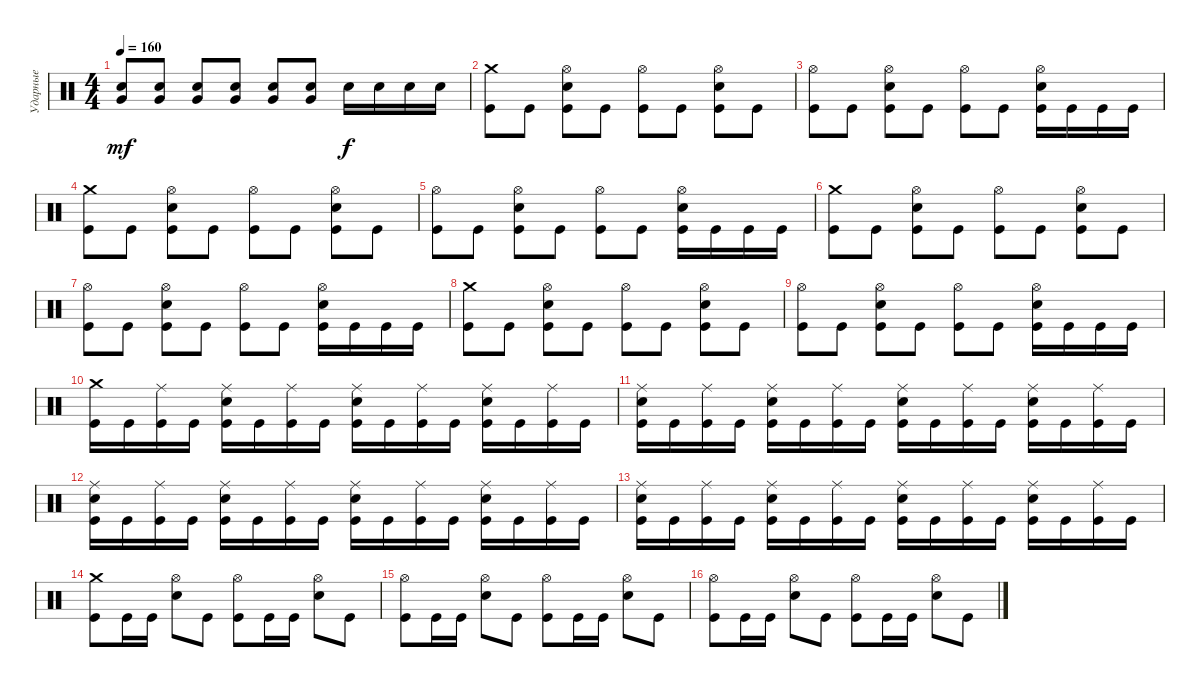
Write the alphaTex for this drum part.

\track ("Ударные" "Ударные") {instrument percussion}
\staff {score}
\articulation defaults
\ts (4 4)
\tempo 160
\clef neutral
\ks c
("Snare (hit) 2" "Very Low Tom (hit)").8{dy mf} ("Snare (hit) 2" "Very Low Tom (hit)").8 ("Snare (hit) 2" "Very Low Tom (hit)").8 ("Snare (hit) 2" "Very Low Tom (hit)").8 ("Snare (hit) 2" "Very Low Tom (hit)").8 ("Snare (hit) 2" "Very Low Tom (hit)").8 "Snare (hit) 2".16{dy f} "Snare (hit) 2".16 "Snare (hit) 2".16 "Snare (hit) 2".16 |
("Kick (hit)" "Crash medium (hit)").8 "Kick (hit)".8 ("Kick (hit)" "Snare (hit) 2" "Hi-Hat (open)").8 "Kick (hit)".8 ("Kick (hit)" "Hi-Hat (open)").8 "Kick (hit)".8 ("Kick (hit)" "Snare (hit) 2" "Hi-Hat (open)").8 "Kick (hit)".8 |
("Kick (hit)" "Hi-Hat (open)").8 "Kick (hit)".8 ("Kick (hit)" "Snare (hit) 2" "Hi-Hat (open)").8 "Kick (hit)".8 ("Kick (hit)" "Hi-Hat (open)").8 "Kick (hit)".8 ("Kick (hit)" "Snare (hit) 2" "Hi-Hat (open)").16 "Kick (hit)".16 "Kick (hit)".16 "Kick (hit)".16 |
("Kick (hit)" "Crash medium (hit)").8 "Kick (hit)".8 ("Kick (hit)" "Snare (hit) 2" "Hi-Hat (open)").8 "Kick (hit)".8 ("Kick (hit)" "Hi-Hat (open)").8 "Kick (hit)".8 ("Kick (hit)" "Snare (hit) 2" "Hi-Hat (open)").8 "Kick (hit)".8 |
("Kick (hit)" "Hi-Hat (open)").8 "Kick (hit)".8 ("Kick (hit)" "Snare (hit) 2" "Hi-Hat (open)").8 "Kick (hit)".8 ("Kick (hit)" "Hi-Hat (open)").8 "Kick (hit)".8 ("Kick (hit)" "Snare (hit) 2" "Hi-Hat (open)").16 "Kick (hit)".16 "Kick (hit)".16 "Kick (hit)".16 |
("Kick (hit)" "Crash medium (hit)").8 "Kick (hit)".8 ("Kick (hit)" "Snare (hit) 2" "Hi-Hat (open)").8 "Kick (hit)".8 ("Kick (hit)" "Hi-Hat (open)").8 "Kick (hit)".8 ("Kick (hit)" "Snare (hit) 2" "Hi-Hat (open)").8 "Kick (hit)".8 |
("Kick (hit)" "Hi-Hat (open)").8 "Kick (hit)".8 ("Kick (hit)" "Snare (hit) 2" "Hi-Hat (open)").8 "Kick (hit)".8 ("Kick (hit)" "Hi-Hat (open)").8 "Kick (hit)".8 ("Kick (hit)" "Snare (hit) 2" "Hi-Hat (open)").16 "Kick (hit)".16 "Kick (hit)".16 "Kick (hit)".16 |
("Kick (hit)" "Crash medium (hit)").8 "Kick (hit)".8 ("Kick (hit)" "Snare (hit) 2" "Hi-Hat (open)").8 "Kick (hit)".8 ("Kick (hit)" "Hi-Hat (open)").8 "Kick (hit)".8 ("Kick (hit)" "Snare (hit) 2" "Hi-Hat (open)").8 "Kick (hit)".8 |
("Kick (hit)" "Hi-Hat (open)").8 "Kick (hit)".8 ("Kick (hit)" "Snare (hit) 2" "Hi-Hat (open)").8 "Kick (hit)".8 ("Kick (hit)" "Hi-Hat (open)").8 "Kick (hit)".8 ("Kick (hit)" "Snare (hit) 2" "Hi-Hat (open)").16 "Kick (hit)".16 "Kick (hit)".16 "Kick (hit)".16 |
("Kick (hit)" "Crash medium (hit)").16 "Kick (hit)".16 ("Kick (hit)" "Ride (middle)").16 "Kick (hit)".16 ("Kick (hit)" "Snare (hit) 2" "Ride (middle)").16 "Kick (hit)".16 ("Kick (hit)" "Ride (middle)").16 "Kick (hit)".16 ("Kick (hit)" "Snare (hit) 2" "Ride (middle)").16 "Kick (hit)".16 ("Kick (hit)" "Ride (middle)").16 "Kick (hit)".16 ("Kick (hit)" "Snare (hit) 2" "Ride (middle)").16 "Kick (hit)".16 ("Kick (hit)" "Ride (middle)").16 "Kick (hit)".16 |
("Kick (hit)" "Snare (hit) 2" "Ride (middle)").16 "Kick (hit)".16 ("Kick (hit)" "Ride (middle)").16 "Kick (hit)".16 ("Kick (hit)" "Snare (hit) 2" "Ride (middle)").16 "Kick (hit)".16 ("Kick (hit)" "Ride (middle)").16 "Kick (hit)".16 ("Kick (hit)" "Snare (hit) 2" "Ride (middle)").16 "Kick (hit)".16 ("Kick (hit)" "Ride (middle)").16 "Kick (hit)".16 ("Kick (hit)" "Snare (hit) 2" "Ride (middle)").16 "Kick (hit)".16 ("Kick (hit)" "Ride (middle)").16 "Kick (hit)".16 |
("Kick (hit)" "Snare (hit) 2" "Ride (middle)").16 "Kick (hit)".16 ("Kick (hit)" "Ride (middle)").16 "Kick (hit)".16 ("Kick (hit)" "Snare (hit) 2" "Ride (middle)").16 "Kick (hit)".16 ("Kick (hit)" "Ride (middle)").16 "Kick (hit)".16 ("Kick (hit)" "Snare (hit) 2" "Ride (middle)").16 "Kick (hit)".16 ("Kick (hit)" "Ride (middle)").16 "Kick (hit)".16 ("Kick (hit)" "Snare (hit) 2" "Ride (middle)").16 "Kick (hit)".16 ("Kick (hit)" "Ride (middle)").16 "Kick (hit)".16 |
("Kick (hit)" "Snare (hit) 2" "Ride (middle)").16 "Kick (hit)".16 ("Kick (hit)" "Ride (middle)").16 "Kick (hit)".16 ("Kick (hit)" "Snare (hit) 2" "Ride (middle)").16 "Kick (hit)".16 ("Kick (hit)" "Ride (middle)").16 "Kick (hit)".16 ("Kick (hit)" "Snare (hit) 2" "Ride (middle)").16 "Kick (hit)".16 ("Kick (hit)" "Ride (middle)").16 "Kick (hit)".16 ("Kick (hit)" "Snare (hit) 2" "Ride (middle)").16 "Kick (hit)".16 ("Kick (hit)" "Ride (middle)").16 "Kick (hit)".16 |
("Kick (hit)" "Crash medium (hit)").8 "Kick (hit)".16 "Kick (hit)".16 ("Snare (hit) 2" "Hi-Hat (open)").8 "Kick (hit)".8 ("Kick (hit)" "Hi-Hat (open)").8 "Kick (hit)".16 "Kick (hit)".16 ("Snare (hit) 2" "Hi-Hat (open)").8 "Kick (hit)".8 |
("Kick (hit)" "Hi-Hat (open)").8 "Kick (hit)".16 "Kick (hit)".16 ("Snare (hit) 2" "Hi-Hat (open)").8 "Kick (hit)".8 ("Kick (hit)" "Hi-Hat (open)").8 "Kick (hit)".16 "Kick (hit)".16 ("Snare (hit) 2" "Hi-Hat (open)").8 "Kick (hit)".8 |
("Kick (hit)" "Hi-Hat (open)").8 "Kick (hit)".16 "Kick (hit)".16 ("Snare (hit) 2" "Hi-Hat (open)").8 "Kick (hit)".8 ("Kick (hit)" "Hi-Hat (open)").8 "Kick (hit)".16 "Kick (hit)".16 ("Snare (hit) 2" "Hi-Hat (open)").8 "Kick (hit)".8
